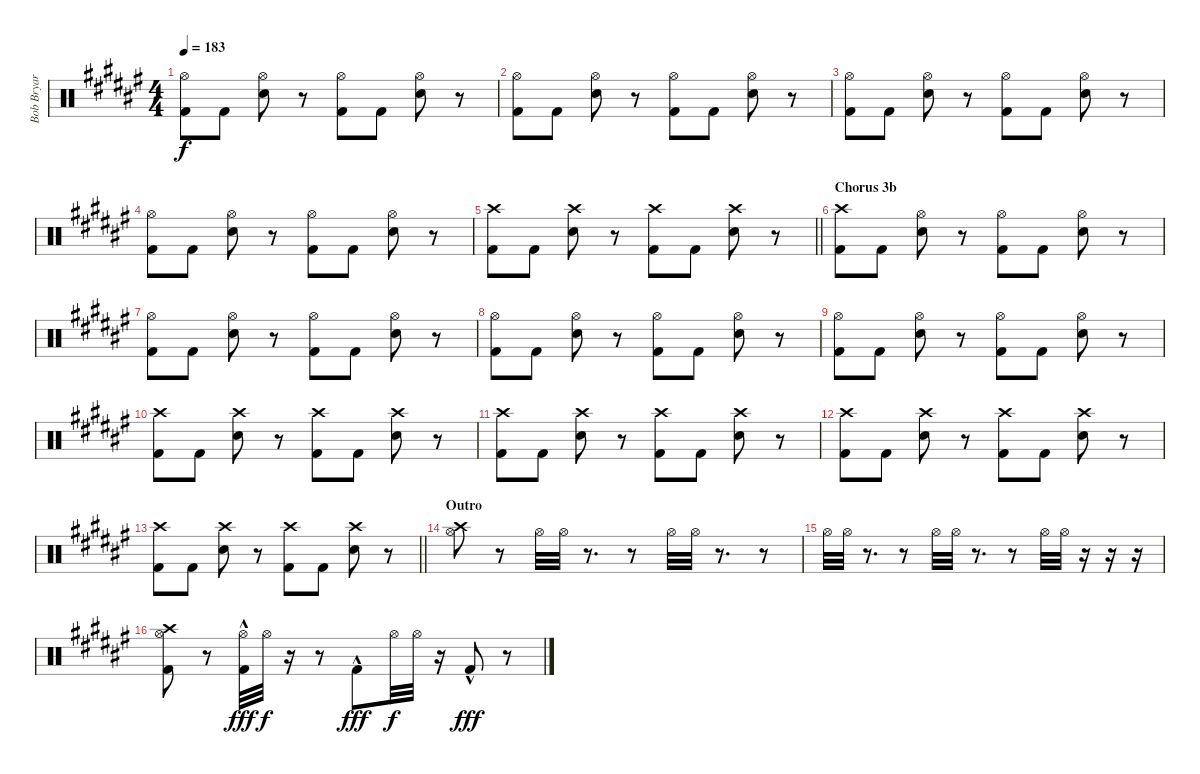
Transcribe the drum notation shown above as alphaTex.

\track ("Bob Bryar" "Bob Bryar") {instrument percussion}
\staff {score}
\articulation defaults
\ts (4 4)
\tempo 183
\clef neutral
\ks d#minor
("Hi-Hat (open)" "Kick (hit) 2").8{dy f} "Kick (hit) 2".8 ("Hi-Hat (open)" "Electric Snare (hit)").8 r.8 ("Hi-Hat (open)" "Kick (hit) 2").8 "Kick (hit) 2".8 ("Hi-Hat (open)" "Electric Snare (hit)").8 r.8 |
("Hi-Hat (open)" "Kick (hit) 2").8 "Kick (hit) 2".8 ("Hi-Hat (open)" "Electric Snare (hit)").8 r.8 ("Hi-Hat (open)" "Kick (hit) 2").8 "Kick (hit) 2".8 ("Hi-Hat (open)" "Electric Snare (hit)").8 r.8 |
("Hi-Hat (open)" "Kick (hit) 2").8 "Kick (hit) 2".8 ("Hi-Hat (open)" "Electric Snare (hit)").8 r.8 ("Hi-Hat (open)" "Kick (hit) 2").8 "Kick (hit) 2".8 ("Hi-Hat (open)" "Electric Snare (hit)").8 r.8 |
("Hi-Hat (open)" "Kick (hit) 2").8 "Kick (hit) 2".8 ("Hi-Hat (open)" "Electric Snare (hit)").8 r.8 ("Hi-Hat (open)" "Kick (hit) 2").8 "Kick (hit) 2".8 ("Hi-Hat (open)" "Electric Snare (hit)").8 r.8 |
\barLineRight lightlight
("Crash high (hit)" "Kick (hit) 2").8 "Kick (hit) 2".8 ("Crash high (hit)" "Electric Snare (hit)").8 r.8 ("Crash high (hit)" "Kick (hit) 2").8 "Kick (hit) 2".8 ("Crash high (hit)" "Electric Snare (hit)").8 r.8 |
\section ("" "Chorus 3b")
("Crash high (hit)" "Kick (hit) 2").8 "Kick (hit) 2".8 ("Hi-Hat (open)" "Electric Snare (hit)").8 r.8 ("Hi-Hat (open)" "Kick (hit) 2").8 "Kick (hit) 2".8 ("Hi-Hat (open)" "Electric Snare (hit)").8 r.8 |
("Hi-Hat (open)" "Kick (hit) 2").8 "Kick (hit) 2".8 ("Hi-Hat (open)" "Electric Snare (hit)").8 r.8 ("Hi-Hat (open)" "Kick (hit) 2").8 "Kick (hit) 2".8 ("Hi-Hat (open)" "Electric Snare (hit)").8 r.8 |
("Hi-Hat (open)" "Kick (hit) 2").8 "Kick (hit) 2".8 ("Hi-Hat (open)" "Electric Snare (hit)").8 r.8 ("Hi-Hat (open)" "Kick (hit) 2").8 "Kick (hit) 2".8 ("Hi-Hat (open)" "Electric Snare (hit)").8 r.8 |
("Hi-Hat (open)" "Kick (hit) 2").8 "Kick (hit) 2".8 ("Hi-Hat (open)" "Electric Snare (hit)").8 r.8 ("Hi-Hat (open)" "Kick (hit) 2").8 "Kick (hit) 2".8 ("Hi-Hat (open)" "Electric Snare (hit)").8 r.8 |
("Crash high (hit)" "Kick (hit) 2").8 "Kick (hit) 2".8 ("Crash high (hit)" "Electric Snare (hit)").8 r.8 ("Crash high (hit)" "Kick (hit) 2").8 "Kick (hit) 2".8 ("Crash high (hit)" "Electric Snare (hit)").8 r.8 |
("Crash high (hit)" "Kick (hit) 2").8 "Kick (hit) 2".8 ("Crash high (hit)" "Electric Snare (hit)").8 r.8 ("Crash high (hit)" "Kick (hit) 2").8 "Kick (hit) 2".8 ("Crash high (hit)" "Electric Snare (hit)").8 r.8 |
("Crash high (hit)" "Kick (hit) 2").8 "Kick (hit) 2".8 ("Crash high (hit)" "Electric Snare (hit)").8 r.8 ("Crash high (hit)" "Kick (hit) 2").8 "Kick (hit) 2".8 ("Crash high (hit)" "Electric Snare (hit)").8 r.8 |
\barLineRight lightlight
("Crash high (hit)" "Kick (hit) 2").8 "Kick (hit) 2".8 ("Crash high (hit)" "Electric Snare (hit)").8 r.8 ("Crash high (hit)" "Kick (hit) 2").8 "Kick (hit) 2".8 ("Crash high (hit)" "Electric Snare (hit)").8 r.8 |
\section ("" "Outro")
("Crash high (hit)" "Hi-Hat (open)").8 r.8 "Hi-Hat (open)".32 "Hi-Hat (open)".32 r.8{d} r.8 "Hi-Hat (open)".32 "Hi-Hat (open)".32 r.8{d} r.8 |
"Hi-Hat (open)".32 "Hi-Hat (open)".32 r.8{d} r.8 "Hi-Hat (open)".32 "Hi-Hat (open)".32 r.8{d} r.8 "Hi-Hat (open)".32 "Hi-Hat (open)".32 r.16 r.16 r.16 |
("Crash high (hit)" "Hi-Hat (open)" "Kick (hit) 2").8 r.8 ("Hi-Hat (open)" "Kick (hit) 2"{hac}).32{dy fff} "Hi-Hat (open)".32{dy f} r.16 r.8 "Kick (hit) 2"{hac}.8{dy fff} "Hi-Hat (open)".32{dy f} "Hi-Hat (open)".32 r.16 "Kick (hit) 2"{hac}.8{dy fff} r.8
